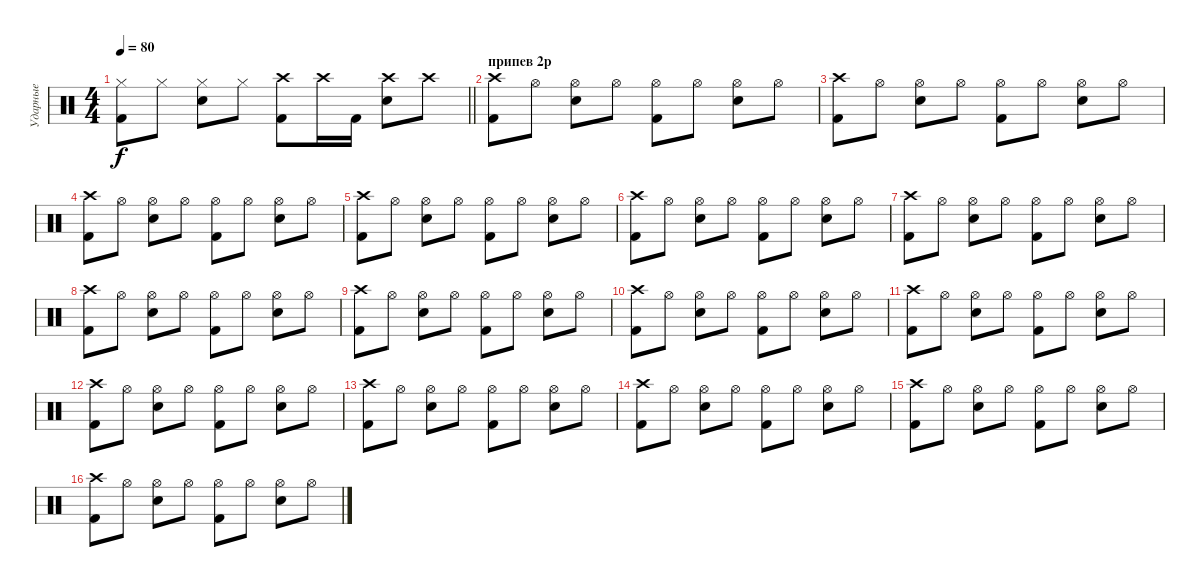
\track ("Ударные" "Ударные") {instrument percussion}
\staff {score}
\articulation defaults
\ts (4 4)
\tempo 80
\clef neutral
\barLineRight lightlight
\ks c
("Hi-Hat (closed)" "Kick (hit) 2").8{dy f} "Hi-Hat (closed)".8 ("Hi-Hat (closed)" "Electric Snare (hit)").8 "Hi-Hat (closed)".8 ("Kick (hit) 2" "Crash high (hit)").8 "Crash high (hit)".16 "Kick (hit) 2".16 ("Crash high (hit)" "Electric Snare (hit)").8 "Crash high (hit)".8 |
\section ("" "припев 2р")
("Crash high (hit)" "Kick (hit) 2").8 "Hi-Hat (open)".8 ("Hi-Hat (open)" "Electric Snare (hit)").8 "Hi-Hat (open)".8 ("Kick (hit) 2" "Hi-Hat (open)").8 "Hi-Hat (open)".8 ("Hi-Hat (open)" "Electric Snare (hit)").8 "Hi-Hat (open)".8 |
("Crash high (hit)" "Kick (hit) 2").8 "Hi-Hat (open)".8 ("Hi-Hat (open)" "Electric Snare (hit)").8 "Hi-Hat (open)".8 ("Kick (hit) 2" "Hi-Hat (open)").8 "Hi-Hat (open)".8 ("Hi-Hat (open)" "Electric Snare (hit)").8 "Hi-Hat (open)".8 |
("Crash high (hit)" "Kick (hit) 2").8 "Hi-Hat (open)".8 ("Hi-Hat (open)" "Electric Snare (hit)").8 "Hi-Hat (open)".8 ("Kick (hit) 2" "Hi-Hat (open)").8 "Hi-Hat (open)".8 ("Hi-Hat (open)" "Electric Snare (hit)").8 "Hi-Hat (open)".8 |
("Crash high (hit)" "Kick (hit) 2").8 "Hi-Hat (open)".8 ("Hi-Hat (open)" "Electric Snare (hit)").8 "Hi-Hat (open)".8 ("Kick (hit) 2" "Hi-Hat (open)").8 "Hi-Hat (open)".8 ("Hi-Hat (open)" "Electric Snare (hit)").8 "Hi-Hat (open)".8 |
("Crash high (hit)" "Kick (hit) 2").8 "Hi-Hat (open)".8 ("Hi-Hat (open)" "Electric Snare (hit)").8 "Hi-Hat (open)".8 ("Kick (hit) 2" "Hi-Hat (open)").8 "Hi-Hat (open)".8 ("Hi-Hat (open)" "Electric Snare (hit)").8 "Hi-Hat (open)".8 |
("Crash high (hit)" "Kick (hit) 2").8 "Hi-Hat (open)".8 ("Hi-Hat (open)" "Electric Snare (hit)").8 "Hi-Hat (open)".8 ("Kick (hit) 2" "Hi-Hat (open)").8 "Hi-Hat (open)".8 ("Hi-Hat (open)" "Electric Snare (hit)").8 "Hi-Hat (open)".8 |
("Crash high (hit)" "Kick (hit) 2").8 "Hi-Hat (open)".8 ("Hi-Hat (open)" "Electric Snare (hit)").8 "Hi-Hat (open)".8 ("Kick (hit) 2" "Hi-Hat (open)").8 "Hi-Hat (open)".8 ("Hi-Hat (open)" "Electric Snare (hit)").8 "Hi-Hat (open)".8 |
("Crash high (hit)" "Kick (hit) 2").8 "Hi-Hat (open)".8 ("Hi-Hat (open)" "Electric Snare (hit)").8 "Hi-Hat (open)".8 ("Kick (hit) 2" "Hi-Hat (open)").8 "Hi-Hat (open)".8 ("Hi-Hat (open)" "Electric Snare (hit)").8 "Hi-Hat (open)".8 |
("Crash high (hit)" "Kick (hit) 2").8 "Hi-Hat (open)".8 ("Hi-Hat (open)" "Electric Snare (hit)").8 "Hi-Hat (open)".8 ("Kick (hit) 2" "Hi-Hat (open)").8 "Hi-Hat (open)".8 ("Hi-Hat (open)" "Electric Snare (hit)").8 "Hi-Hat (open)".8 |
("Crash high (hit)" "Kick (hit) 2").8 "Hi-Hat (open)".8 ("Hi-Hat (open)" "Electric Snare (hit)").8 "Hi-Hat (open)".8 ("Kick (hit) 2" "Hi-Hat (open)").8 "Hi-Hat (open)".8 ("Hi-Hat (open)" "Electric Snare (hit)").8 "Hi-Hat (open)".8 |
("Crash high (hit)" "Kick (hit) 2").8 "Hi-Hat (open)".8 ("Hi-Hat (open)" "Electric Snare (hit)").8 "Hi-Hat (open)".8 ("Kick (hit) 2" "Hi-Hat (open)").8 "Hi-Hat (open)".8 ("Hi-Hat (open)" "Electric Snare (hit)").8 "Hi-Hat (open)".8 |
("Crash high (hit)" "Kick (hit) 2").8 "Hi-Hat (open)".8 ("Hi-Hat (open)" "Electric Snare (hit)").8 "Hi-Hat (open)".8 ("Kick (hit) 2" "Hi-Hat (open)").8 "Hi-Hat (open)".8 ("Hi-Hat (open)" "Electric Snare (hit)").8 "Hi-Hat (open)".8 |
("Crash high (hit)" "Kick (hit) 2").8 "Hi-Hat (open)".8 ("Hi-Hat (open)" "Electric Snare (hit)").8 "Hi-Hat (open)".8 ("Kick (hit) 2" "Hi-Hat (open)").8 "Hi-Hat (open)".8 ("Hi-Hat (open)" "Electric Snare (hit)").8 "Hi-Hat (open)".8 |
("Crash high (hit)" "Kick (hit) 2").8 "Hi-Hat (open)".8 ("Hi-Hat (open)" "Electric Snare (hit)").8 "Hi-Hat (open)".8 ("Kick (hit) 2" "Hi-Hat (open)").8 "Hi-Hat (open)".8 ("Hi-Hat (open)" "Electric Snare (hit)").8 "Hi-Hat (open)".8 |
("Crash high (hit)" "Kick (hit) 2").8 "Hi-Hat (open)".8 ("Hi-Hat (open)" "Electric Snare (hit)").8 "Hi-Hat (open)".8 ("Kick (hit) 2" "Hi-Hat (open)").8 "Hi-Hat (open)".8 ("Hi-Hat (open)" "Electric Snare (hit)").8 "Hi-Hat (open)".8
